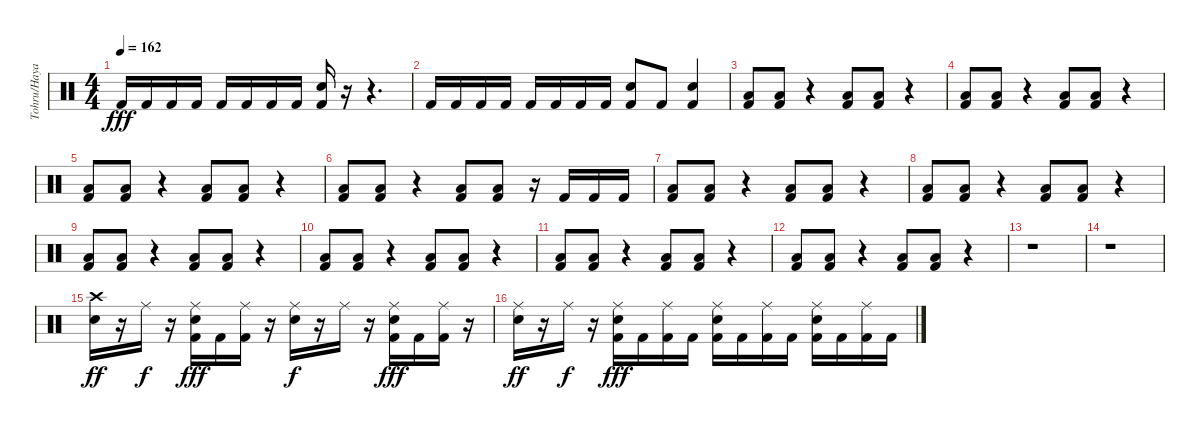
\track ("Tohru/Hayato" "Tohru/Haya") {instrument percussion}
\staff {score}
\articulation defaults
\ts (4 4)
\tempo 162
\clef neutral
\ks c "Kick (hit) 2".16{dy fff} "Kick (hit) 2".16 "Kick (hit) 2".16 "Kick (hit) 2".16 "Kick (hit) 2".16 "Kick (hit) 2".16 "Kick (hit) 2".16 "Kick (hit) 2".16
("Electric Snare (hit)" "Kick (hit) 2").16 r.16 r.4{d} |
"Kick (hit) 2".16 "Kick (hit) 2".16 "Kick (hit) 2".16 "Kick (hit) 2".16 "Kick (hit) 2".16 "Kick (hit) 2".16 "Kick (hit) 2".16 "Kick (hit) 2".16 ("Electric Snare (hit)" "Kick (hit) 2").8 "Kick (hit) 2".8 ("Electric Snare (hit)" "Kick (hit) 2").4 |
("Low Tom (hit)" "Kick (hit) 2").8 ("Low Tom (hit)" "Kick (hit) 2").8 r.4 ("Low Tom (hit)" "Kick (hit) 2").8 ("Low Tom (hit)" "Kick (hit) 2").8 r.4 |
("Low Tom (hit)" "Kick (hit) 2").8 ("Low Tom (hit)" "Kick (hit) 2").8 r.4 ("Low Tom (hit)" "Kick (hit) 2").8 ("Low Tom (hit)" "Kick (hit) 2").8 r.4 |
("Low Tom (hit)" "Kick (hit) 2").8 ("Low Tom (hit)" "Kick (hit) 2").8 r.4 ("Low Tom (hit)" "Kick (hit) 2").8 ("Low Tom (hit)" "Kick (hit) 2").8 r.4 |
("Low Tom (hit)" "Kick (hit) 2").8 ("Low Tom (hit)" "Kick (hit) 2").8 r.4 ("Low Tom (hit)" "Kick (hit) 2").8 ("Low Tom (hit)" "Kick (hit) 2").8 r.16 "Kick (hit) 2".16 "Kick (hit) 2".16 "Kick (hit) 2".16 |
("Low Tom (hit)" "Kick (hit) 2").8 ("Low Tom (hit)" "Kick (hit) 2").8 r.4 ("Low Tom (hit)" "Kick (hit) 2").8 ("Low Tom (hit)" "Kick (hit) 2").8 r.4 |
("Low Tom (hit)" "Kick (hit) 2").8 ("Low Tom (hit)" "Kick (hit) 2").8 r.4 ("Low Tom (hit)" "Kick (hit) 2").8 ("Low Tom (hit)" "Kick (hit) 2").8 r.4 |
("Low Tom (hit)" "Kick (hit) 2").8 ("Low Tom (hit)" "Kick (hit) 2").8 r.4 ("Low Tom (hit)" "Kick (hit) 2").8 ("Low Tom (hit)" "Kick (hit) 2").8 r.4 |
("Low Tom (hit)" "Kick (hit) 2").8 ("Low Tom (hit)" "Kick (hit) 2").8 r.4 ("Low Tom (hit)" "Kick (hit) 2").8 ("Low Tom (hit)" "Kick (hit) 2").8 r.4 |
("Low Tom (hit)" "Kick (hit) 2").8 ("Low Tom (hit)" "Kick (hit) 2").8 r.4 ("Low Tom (hit)" "Kick (hit) 2").8 ("Low Tom (hit)" "Kick (hit) 2").8 r.4 |
("Low Tom (hit)" "Kick (hit) 2").8 ("Low Tom (hit)" "Kick (hit) 2").8 r.4 ("Low Tom (hit)" "Kick (hit) 2").8 ("Low Tom (hit)" "Kick (hit) 2").8 r.4 |
r.1 |
r.1 |
("Crash high (hit)" "Electric Snare (hit)").16{dy ff} r.16 "Ride (middle)".16{dy f} r.16 ("Ride (middle)" "Electric Snare (hit)" "Kick (hit) 2").16{dy fff} "Kick (hit) 2".16 ("Ride (middle)" "Kick (hit) 2").16 r.16 ("Ride (middle)" "Electric Snare (hit)").16{dy f} r.16 "Ride (middle)".16 r.16 ("Ride (middle)" "Electric Snare (hit)" "Kick (hit) 2").16{dy fff} "Kick (hit) 2".16 ("Ride (middle)" "Kick (hit) 2").16 r.16 |
("Ride (middle)" "Electric Snare (hit)").16{dy ff} r.16 "Ride (middle)".16{dy f} r.16 ("Ride (middle)" "Electric Snare (hit)" "Kick (hit) 2").16{dy fff} "Kick (hit) 2".16 ("Ride (middle)" "Kick (hit) 2").16 "Kick (hit) 2".16 ("Ride (middle)" "Electric Snare (hit)" "Kick (hit) 2").16 "Kick (hit) 2".16 ("Ride (middle)" "Kick (hit) 2").16 "Kick (hit) 2".16 ("Ride (middle)" "Electric Snare (hit)" "Kick (hit) 2").16 "Kick (hit) 2".16 ("Ride (middle)" "Kick (hit) 2").16 "Kick (hit) 2".16
